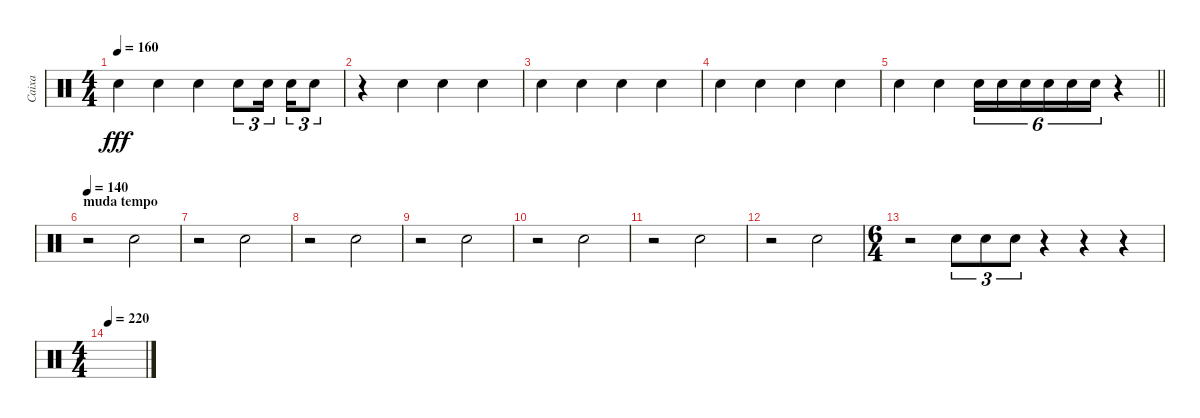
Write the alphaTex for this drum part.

\track ("Caixa" "Caixa") {instrument percussion}
\staff {score}
\articulation defaults
\ts (4 4)
\tempo 160
\clef neutral
\ks c "Electric Snare (hit)".4{dy fff} "Electric Snare (hit)".4 "Electric Snare (hit)".4 "Electric Snare (hit)".8{tu (3 2)} "Electric Snare (hit)".16{tu (3 2)} "Electric Snare (hit)".16{tu (3 2)} "Electric Snare (hit)".8{tu (3 2)}
|
r.4 "Electric Snare (hit)".4 "Electric Snare (hit)".4 "Electric Snare (hit)".4 |
"Electric Snare (hit)".4 "Electric Snare (hit)".4 "Electric Snare (hit)".4 "Electric Snare (hit)".4 |
"Electric Snare (hit)".4 "Electric Snare (hit)".4 "Electric Snare (hit)".4 "Electric Snare (hit)".4 |
\barLineRight lightlight "Electric Snare (hit)".4 "Electric Snare (hit)".4 "Electric Snare (hit)".16{tu (6 4)} "Electric Snare (hit)".16{tu (6 4)} "Electric Snare (hit)".16{tu (6 4)} "Electric Snare (hit)".16{tu (6 4)} "Electric Snare (hit)".16{tu (6 4)} "Electric Snare (hit)".16{tu (6 4)}
r.4 |
\section ("" "muda tempo")
\tempo 140
r.2 "Electric Snare (hit)".2 |
r.2 "Electric Snare (hit)".2 |
r.2 "Electric Snare (hit)".2 |
r.2 "Electric Snare (hit)".2 |
r.2 "Electric Snare (hit)".2 |
r.2 "Electric Snare (hit)".2 |
r.2 "Electric Snare (hit)".2 |
\ts (6 4)
r.2 "Electric Snare (hit)".8{tu (3 2)} "Electric Snare (hit)".8{tu (3 2)} "Electric Snare (hit)".8{tu (3 2)} r.4 r.4 r.4 |
\ts (4 4)
\tempo 220
